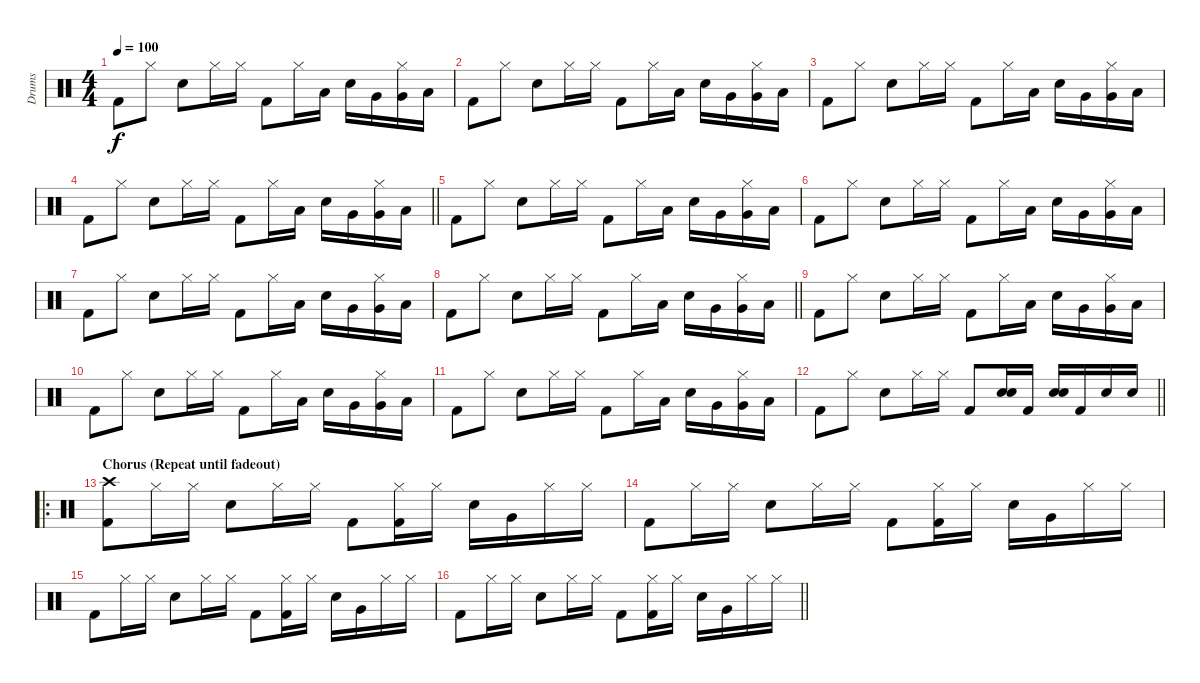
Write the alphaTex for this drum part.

\track ("Drums" "Drums") {instrument percussion}
\staff {score}
\articulation defaults
\ts (4 4)
\tempo 100
\clef neutral
\ks c "Kick (hit) 2".8{dy f} "Hi-Hat (closed)".8 "Snare (hit) 2".8 "Hi-Hat (closed)".16 "Hi-Hat (closed)".16 "Kick (hit) 2".8 "Hi-Hat (closed)".16 "Low Tom (hit)".16 "Snare (hit) 2".16 "Very Low Tom (hit)".16
("Hi-Hat (closed)" "Very Low Tom (hit)").16 "Low Floor Tom (hit)".16 |
"Kick (hit) 2".8 "Hi-Hat (closed)".8 "Snare (hit) 2".8 "Hi-Hat (closed)".16 "Hi-Hat (closed)".16 "Kick (hit) 2".8 "Hi-Hat (closed)".16 "Low Tom (hit)".16 "Snare (hit) 2".16 "Very Low Tom (hit)".16 ("Hi-Hat (closed)" "Very Low Tom (hit)").16 "Low Floor Tom (hit)".16 |
"Kick (hit) 2".8 "Hi-Hat (closed)".8 "Snare (hit) 2".8 "Hi-Hat (closed)".16 "Hi-Hat (closed)".16 "Kick (hit) 2".8 "Hi-Hat (closed)".16 "Low Tom (hit)".16 "Snare (hit) 2".16 "Very Low Tom (hit)".16 ("Hi-Hat (closed)" "Very Low Tom (hit)").16 "Low Floor Tom (hit)".16 |
\barLineRight lightlight "Kick (hit) 2".8 "Hi-Hat (closed)".8 "Snare (hit) 2".8 "Hi-Hat (closed)".16 "Hi-Hat (closed)".16 "Kick (hit) 2".8 "Hi-Hat (closed)".16 "Low Tom (hit)".16 "Snare (hit) 2".16 "Very Low Tom (hit)".16
("Hi-Hat (closed)" "Very Low Tom (hit)").16 "Low Floor Tom (hit)".16 |
"Kick (hit) 2".8 "Hi-Hat (closed)".8 "Snare (hit) 2".8 "Hi-Hat (closed)".16 "Hi-Hat (closed)".16 "Kick (hit) 2".8 "Hi-Hat (closed)".16 "Low Tom (hit)".16 "Snare (hit) 2".16 "Very Low Tom (hit)".16 ("Hi-Hat (closed)" "Very Low Tom (hit)").16 "Low Floor Tom (hit)".16 |
"Kick (hit) 2".8 "Hi-Hat (closed)".8 "Snare (hit) 2".8 "Hi-Hat (closed)".16 "Hi-Hat (closed)".16 "Kick (hit) 2".8 "Hi-Hat (closed)".16 "Low Tom (hit)".16 "Snare (hit) 2".16 "Very Low Tom (hit)".16 ("Hi-Hat (closed)" "Very Low Tom (hit)").16 "Low Floor Tom (hit)".16 |
"Kick (hit) 2".8 "Hi-Hat (closed)".8 "Snare (hit) 2".8 "Hi-Hat (closed)".16 "Hi-Hat (closed)".16 "Kick (hit) 2".8 "Hi-Hat (closed)".16 "Low Tom (hit)".16 "Snare (hit) 2".16 "Very Low Tom (hit)".16 ("Hi-Hat (closed)" "Very Low Tom (hit)").16 "Low Floor Tom (hit)".16 |
\barLineRight lightlight "Kick (hit) 2".8 "Hi-Hat (closed)".8 "Snare (hit) 2".8 "Hi-Hat (closed)".16 "Hi-Hat (closed)".16 "Kick (hit) 2".8 "Hi-Hat (closed)".16 "Low Tom (hit)".16 "Snare (hit) 2".16 "Very Low Tom (hit)".16
("Hi-Hat (closed)" "Very Low Tom (hit)").16 "Low Floor Tom (hit)".16 |
"Kick (hit) 2".8 "Hi-Hat (closed)".8 "Snare (hit) 2".8 "Hi-Hat (closed)".16 "Hi-Hat (closed)".16 "Kick (hit) 2".8 "Hi-Hat (closed)".16 "Low Tom (hit)".16 "Snare (hit) 2".16 "Very Low Tom (hit)".16 ("Hi-Hat (closed)" "Very Low Tom (hit)").16 "Low Floor Tom (hit)".16 |
"Kick (hit) 2".8 "Hi-Hat (closed)".8 "Snare (hit) 2".8 "Hi-Hat (closed)".16 "Hi-Hat (closed)".16 "Kick (hit) 2".8 "Hi-Hat (closed)".16 "Low Tom (hit)".16 "Snare (hit) 2".16 "Very Low Tom (hit)".16 ("Hi-Hat (closed)" "Very Low Tom (hit)").16 "Low Floor Tom (hit)".16 |
"Kick (hit) 2".8 "Hi-Hat (closed)".8 "Snare (hit) 2".8 "Hi-Hat (closed)".16 "Hi-Hat (closed)".16 "Kick (hit) 2".8 "Hi-Hat (closed)".16 "Low Tom (hit)".16 "Snare (hit) 2".16 "Very Low Tom (hit)".16 ("Hi-Hat (closed)" "Very Low Tom (hit)").16 "Low Floor Tom (hit)".16 |
\barLineRight lightlight "Kick (hit) 2".8 "Hi-Hat (closed)".8 "Snare (hit) 2".8 "Hi-Hat (closed)".16 "Hi-Hat (closed)".16 "Kick (hit) 2".8
("Snare (hit) 2" "Snare (hit) 2").16{bd 480} "Kick (hit) 2".16 ("Snare (hit) 2" "Snare (hit) 2").16{bd 480} "Kick (hit) 2".16 "Snare (hit) 2".16 "Snare (hit) 2".16 |
\ro
\section ("" "Chorus (Repeat until fadeout)")
("Crash high (hit)" "Kick (hit) 2").8 "Hi-Hat (closed)".16 "Hi-Hat (closed)".16 "Snare (hit) 2".8 "Hi-Hat (closed)".16 "Hi-Hat (closed)".16 "Kick (hit) 2".8 ("Hi-Hat (closed)" "Kick (hit) 2").16 "Hi-Hat (closed)".16 "Snare (hit) 2".16 "Very Low Tom (hit)".16 "Hi-Hat (closed)".16 "Hi-Hat (closed)".16 |
"Kick (hit) 2".8 "Hi-Hat (closed)".16 "Hi-Hat (closed)".16 "Snare (hit) 2".8 "Hi-Hat (closed)".16 "Hi-Hat (closed)".16 "Kick (hit) 2".8 ("Hi-Hat (closed)" "Kick (hit) 2").16 "Hi-Hat (closed)".16 "Snare (hit) 2".16 "Very Low Tom (hit)".16 "Hi-Hat (closed)".16 "Hi-Hat (closed)".16 |
"Kick (hit) 2".8 "Hi-Hat (closed)".16 "Hi-Hat (closed)".16 "Snare (hit) 2".8 "Hi-Hat (closed)".16 "Hi-Hat (closed)".16 "Kick (hit) 2".8 ("Hi-Hat (closed)" "Kick (hit) 2").16 "Hi-Hat (closed)".16 "Snare (hit) 2".16 "Very Low Tom (hit)".16 "Hi-Hat (closed)".16 "Hi-Hat (closed)".16 |
\barLineRight lightlight "Kick (hit) 2".8 "Hi-Hat (closed)".16 "Hi-Hat (closed)".16 "Snare (hit) 2".8 "Hi-Hat (closed)".16 "Hi-Hat (closed)".16 "Kick (hit) 2".8
("Hi-Hat (closed)" "Kick (hit) 2").16 "Hi-Hat (closed)".16 "Snare (hit) 2".16 "Very Low Tom (hit)".16 "Hi-Hat (closed)".16 "Hi-Hat (closed)".16
